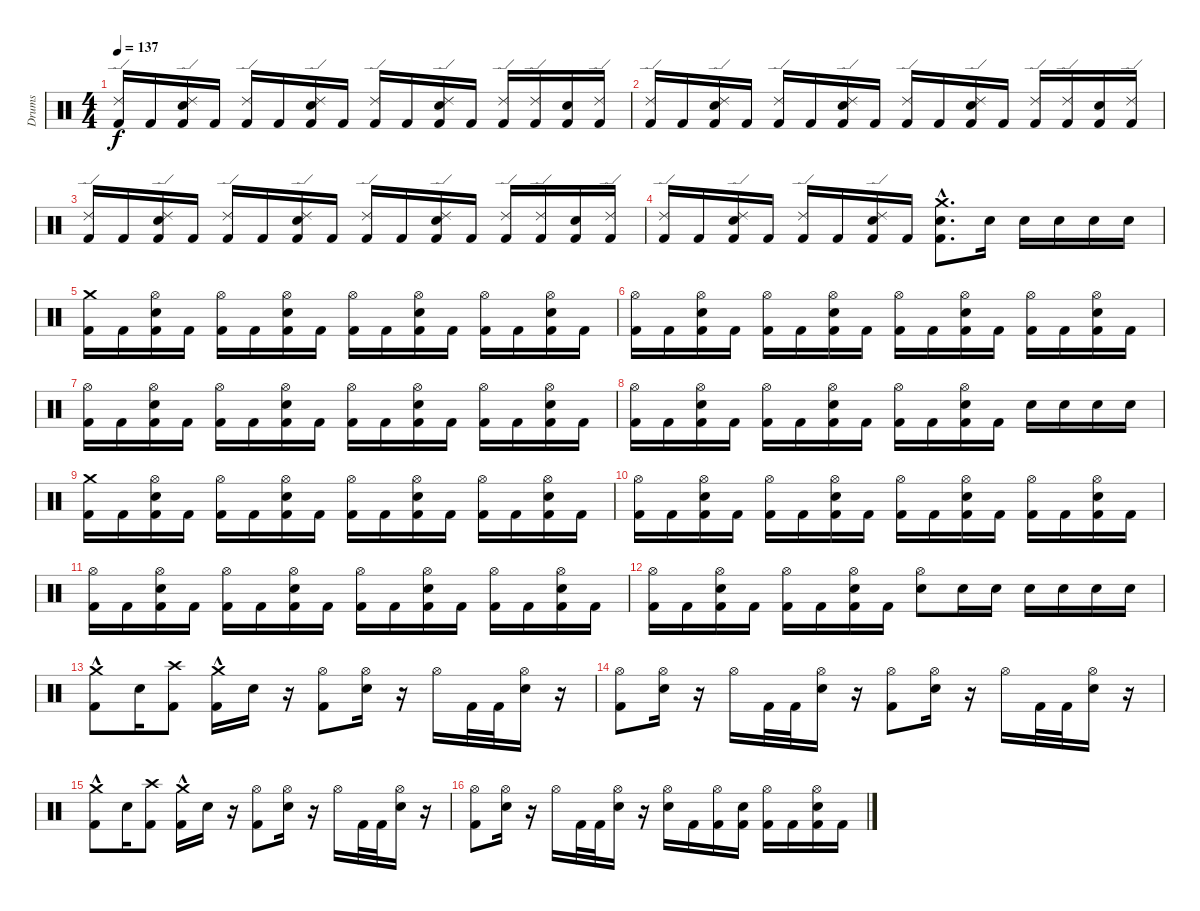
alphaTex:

\track ("Drums" "Drums") {instrument percussion}
\staff {score}
\articulation defaults
\ts (4 4)
\tempo 137
\clef neutral
\ks c
("Ride (edge) 2" "Kick (hit) 2").16{dy f} "Kick (hit) 2".16 ("Ride (edge) 2" "Snare (hit) 2" "Kick (hit) 2").16 "Kick (hit) 2".16 ("Ride (edge) 2" "Kick (hit) 2").16 "Kick (hit) 2".16 ("Ride (edge) 2" "Snare (hit) 2" "Kick (hit) 2").16 "Kick (hit) 2".16 ("Ride (edge) 2" "Kick (hit) 2").16 "Kick (hit) 2".16 ("Ride (edge) 2" "Snare (hit) 2" "Kick (hit) 2").16 "Kick (hit) 2".16 ("Ride (edge) 2" "Kick (hit) 2").16 ("Ride (edge) 2" "Kick (hit) 2").16 ("Snare (hit) 2" "Kick (hit) 2").16 ("Ride (edge) 2" "Kick (hit) 2").16 |
("Ride (edge) 2" "Kick (hit) 2").16 "Kick (hit) 2".16 ("Ride (edge) 2" "Snare (hit) 2" "Kick (hit) 2").16 "Kick (hit) 2".16 ("Ride (edge) 2" "Kick (hit) 2").16 "Kick (hit) 2".16 ("Ride (edge) 2" "Snare (hit) 2" "Kick (hit) 2").16 "Kick (hit) 2".16 ("Ride (edge) 2" "Kick (hit) 2").16 "Kick (hit) 2".16 ("Ride (edge) 2" "Snare (hit) 2" "Kick (hit) 2").16 "Kick (hit) 2".16 ("Ride (edge) 2" "Kick (hit) 2").16 ("Ride (edge) 2" "Kick (hit) 2").16 ("Snare (hit) 2" "Kick (hit) 2").16 ("Ride (edge) 2" "Kick (hit) 2").16 |
("Ride (edge) 2" "Kick (hit) 2").16 "Kick (hit) 2".16 ("Ride (edge) 2" "Snare (hit) 2" "Kick (hit) 2").16 "Kick (hit) 2".16 ("Ride (edge) 2" "Kick (hit) 2").16 "Kick (hit) 2".16 ("Ride (edge) 2" "Snare (hit) 2" "Kick (hit) 2").16 "Kick (hit) 2".16 ("Ride (edge) 2" "Kick (hit) 2").16 "Kick (hit) 2".16 ("Ride (edge) 2" "Snare (hit) 2" "Kick (hit) 2").16 "Kick (hit) 2".16 ("Ride (edge) 2" "Kick (hit) 2").16 ("Ride (edge) 2" "Kick (hit) 2").16 ("Snare (hit) 2" "Kick (hit) 2").16 ("Ride (edge) 2" "Kick (hit) 2").16 |
("Ride (edge) 2" "Kick (hit) 2").16 "Kick (hit) 2".16 ("Ride (edge) 2" "Snare (hit) 2" "Kick (hit) 2").16 "Kick (hit) 2".16 ("Ride (edge) 2" "Kick (hit) 2").16 "Kick (hit) 2".16 ("Ride (edge) 2" "Snare (hit) 2" "Kick (hit) 2").16 "Kick (hit) 2".16 ("Crash medium (hit)" "Snare (hit) 2"{hac} "Kick (hit) 2"{hac}).8{d} "Snare (hit) 2".16 "Snare (hit) 2".16 "Snare (hit) 2".16 "Snare (hit) 2".16 "Snare (hit) 2".16 |
("Crash medium (hit)" "Kick (hit) 2").16 "Kick (hit) 2".16 ("Hi-Hat (open)" "Snare (hit) 2" "Kick (hit) 2").16 "Kick (hit) 2".16 ("Hi-Hat (open)" "Kick (hit) 2").16 "Kick (hit) 2".16 ("Hi-Hat (open)" "Snare (hit) 2" "Kick (hit) 2").16 "Kick (hit) 2".16 ("Hi-Hat (open)" "Kick (hit) 2").16 "Kick (hit) 2".16 ("Hi-Hat (open)" "Snare (hit) 2" "Kick (hit) 2").16 "Kick (hit) 2".16 ("Hi-Hat (open)" "Kick (hit) 2").16 "Kick (hit) 2".16 ("Hi-Hat (open)" "Snare (hit) 2" "Kick (hit) 2").16 "Kick (hit) 2".16 |
("Hi-Hat (open)" "Kick (hit) 2").16 "Kick (hit) 2".16 ("Hi-Hat (open)" "Snare (hit) 2" "Kick (hit) 2").16 "Kick (hit) 2".16 ("Hi-Hat (open)" "Kick (hit) 2").16 "Kick (hit) 2".16 ("Hi-Hat (open)" "Snare (hit) 2" "Kick (hit) 2").16 "Kick (hit) 2".16 ("Hi-Hat (open)" "Kick (hit) 2").16 "Kick (hit) 2".16 ("Hi-Hat (open)" "Snare (hit) 2" "Kick (hit) 2").16 "Kick (hit) 2".16 ("Hi-Hat (open)" "Kick (hit) 2").16 "Kick (hit) 2".16 ("Hi-Hat (open)" "Snare (hit) 2" "Kick (hit) 2").16 "Kick (hit) 2".16 |
("Hi-Hat (open)" "Kick (hit) 2").16 "Kick (hit) 2".16 ("Hi-Hat (open)" "Snare (hit) 2" "Kick (hit) 2").16 "Kick (hit) 2".16 ("Hi-Hat (open)" "Kick (hit) 2").16 "Kick (hit) 2".16 ("Hi-Hat (open)" "Snare (hit) 2" "Kick (hit) 2").16 "Kick (hit) 2".16 ("Hi-Hat (open)" "Kick (hit) 2").16 "Kick (hit) 2".16 ("Hi-Hat (open)" "Snare (hit) 2" "Kick (hit) 2").16 "Kick (hit) 2".16 ("Hi-Hat (open)" "Kick (hit) 2").16 "Kick (hit) 2".16 ("Hi-Hat (open)" "Snare (hit) 2" "Kick (hit) 2").16 "Kick (hit) 2".16 |
("Hi-Hat (open)" "Kick (hit) 2").16 "Kick (hit) 2".16 ("Hi-Hat (open)" "Snare (hit) 2" "Kick (hit) 2").16 "Kick (hit) 2".16 ("Hi-Hat (open)" "Kick (hit) 2").16 "Kick (hit) 2".16 ("Hi-Hat (open)" "Snare (hit) 2" "Kick (hit) 2").16 "Kick (hit) 2".16 ("Hi-Hat (open)" "Kick (hit) 2").16 "Kick (hit) 2".16 ("Hi-Hat (open)" "Snare (hit) 2" "Kick (hit) 2").16 "Kick (hit) 2".16 "Snare (hit) 2".16 "Snare (hit) 2".16 "Snare (hit) 2".16 "Snare (hit) 2".16 |
("Crash medium (hit)" "Kick (hit) 2").16 "Kick (hit) 2".16 ("Hi-Hat (open)" "Snare (hit) 2" "Kick (hit) 2").16 "Kick (hit) 2".16 ("Hi-Hat (open)" "Kick (hit) 2").16 "Kick (hit) 2".16 ("Hi-Hat (open)" "Snare (hit) 2" "Kick (hit) 2").16 "Kick (hit) 2".16 ("Hi-Hat (open)" "Kick (hit) 2").16 "Kick (hit) 2".16 ("Hi-Hat (open)" "Snare (hit) 2" "Kick (hit) 2").16 "Kick (hit) 2".16 ("Hi-Hat (open)" "Kick (hit) 2").16 "Kick (hit) 2".16 ("Hi-Hat (open)" "Snare (hit) 2" "Kick (hit) 2").16 "Kick (hit) 2".16 |
("Hi-Hat (open)" "Kick (hit) 2").16 "Kick (hit) 2".16 ("Hi-Hat (open)" "Snare (hit) 2" "Kick (hit) 2").16 "Kick (hit) 2".16 ("Hi-Hat (open)" "Kick (hit) 2").16 "Kick (hit) 2".16 ("Hi-Hat (open)" "Snare (hit) 2" "Kick (hit) 2").16 "Kick (hit) 2".16 ("Hi-Hat (open)" "Kick (hit) 2").16 "Kick (hit) 2".16 ("Hi-Hat (open)" "Snare (hit) 2" "Kick (hit) 2").16 "Kick (hit) 2".16 ("Hi-Hat (open)" "Kick (hit) 2").16 "Kick (hit) 2".16 ("Hi-Hat (open)" "Snare (hit) 2" "Kick (hit) 2").16 "Kick (hit) 2".16 |
("Hi-Hat (open)" "Kick (hit) 2").16 "Kick (hit) 2".16 ("Hi-Hat (open)" "Snare (hit) 2" "Kick (hit) 2").16 "Kick (hit) 2".16 ("Hi-Hat (open)" "Kick (hit) 2").16 "Kick (hit) 2".16 ("Hi-Hat (open)" "Snare (hit) 2" "Kick (hit) 2").16 "Kick (hit) 2".16 ("Hi-Hat (open)" "Kick (hit) 2").16 "Kick (hit) 2".16 ("Hi-Hat (open)" "Snare (hit) 2" "Kick (hit) 2").16 "Kick (hit) 2".16 ("Hi-Hat (open)" "Kick (hit) 2").16 "Kick (hit) 2".16 ("Hi-Hat (open)" "Snare (hit) 2" "Kick (hit) 2").16 "Kick (hit) 2".16 |
("Hi-Hat (open)" "Kick (hit) 2").16 "Kick (hit) 2".16 ("Hi-Hat (open)" "Snare (hit) 2" "Kick (hit) 2").16 "Kick (hit) 2".16 ("Hi-Hat (open)" "Kick (hit) 2").16 "Kick (hit) 2".16 ("Hi-Hat (open)" "Snare (hit) 2" "Kick (hit) 2").16 "Kick (hit) 2".16 ("Hi-Hat (open)" "Snare (hit) 2").8 "Snare (hit) 2".16 "Snare (hit) 2".16 "Snare (hit) 2".16 "Snare (hit) 2".16 "Snare (hit) 2".16 "Snare (hit) 2".16 |
("Crash medium (hit)"{hac} "Kick (hit) 2").8 "Snare (hit) 2".16 ("Crash high (hit)" "Kick (hit) 2").8 ("Crash medium (hit)"{hac} "Kick (hit) 2").16 "Snare (hit) 2".16 r.16 ("Hi-Hat (open)" "Kick (hit) 2").8 ("Hi-Hat (open)" "Snare (hit) 2").16 r.16 "Hi-Hat (open)".16 "Kick (hit) 2".32 "Kick (hit) 2".32 ("Hi-Hat (open)" "Snare (hit) 2").16 r.16 |
("Hi-Hat (open)" "Kick (hit) 2").8 ("Hi-Hat (open)" "Snare (hit) 2").16 r.16 "Hi-Hat (open)".16 "Kick (hit) 2".32 "Kick (hit) 2".32 ("Hi-Hat (open)" "Snare (hit) 2").16 r.16 ("Hi-Hat (open)" "Kick (hit) 2").8 ("Hi-Hat (open)" "Snare (hit) 2").16 r.16 "Hi-Hat (open)".16 "Kick (hit) 2".32 "Kick (hit) 2".32 ("Hi-Hat (open)" "Snare (hit) 2").16 r.16 |
("Crash medium (hit)"{hac} "Kick (hit) 2").8 "Snare (hit) 2".16 ("Crash high (hit)" "Kick (hit) 2").8 ("Crash medium (hit)"{hac} "Kick (hit) 2").16 "Snare (hit) 2".16 r.16 ("Hi-Hat (open)" "Kick (hit) 2").8 ("Hi-Hat (open)" "Snare (hit) 2").16 r.16 "Hi-Hat (open)".16 "Kick (hit) 2".32 "Kick (hit) 2".32 ("Hi-Hat (open)" "Snare (hit) 2").16 r.16 |
("Hi-Hat (open)" "Kick (hit) 2").8 ("Hi-Hat (open)" "Snare (hit) 2").16 r.16 "Hi-Hat (open)".16 "Kick (hit) 2".32 "Kick (hit) 2".32 ("Hi-Hat (open)" "Snare (hit) 2").16 r.16 ("Hi-Hat (open)" "Snare (hit) 2").16 "Kick (hit) 2".16 ("Hi-Hat (open)" "Kick (hit) 2").16 ("Snare (hit) 2" "Kick (hit) 2").16 ("Hi-Hat (open)" "Kick (hit) 2").16 "Kick (hit) 2".16 ("Hi-Hat (open)" "Snare (hit) 2" "Kick (hit) 2").16 "Kick (hit) 2".16
